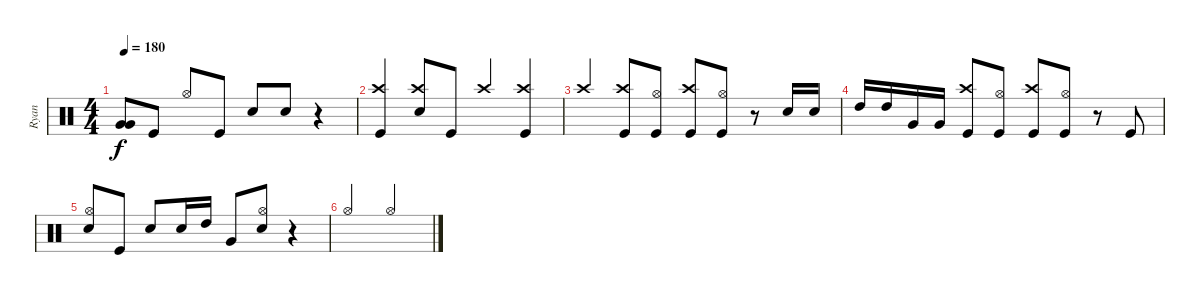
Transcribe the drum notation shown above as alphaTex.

\track ("Ryan" "Ryan") {instrument percussion}
\staff {score}
\articulation defaults
\ts (4 4)
\tempo 180
\clef neutral
\ks c
("Very Low Tom (hit)" "Very Low Tom (hit)").8{dy f} "Kick (hit)".8 "Hi-Hat (open)".8{beam Up} "Kick (hit)".8{beam Up} "Snare (hit) 2".8{beam Up} "Snare (hit) 2".8{beam Up} r.4 |
("Kick (hit)" "Crash high (hit)").4{beam Up} ("Snare (hit) 2" "Crash high (hit)").8{beam Up} "Kick (hit)".8{beam Up} "Crash high (hit)".4{beam Up} ("Kick (hit)" "Crash high (hit)").4{beam Up} |
"Crash high (hit)".4{beam Up} ("Kick (hit)" "Crash high (hit)").8{beam Up} ("Hi-Hat (open)" "Kick (hit)").8{beam Up} ("Kick (hit)" "Crash high (hit)").8{beam Up} ("Kick (hit)" "Hi-Hat (open)").8{beam Up} r.8 "Snare (hit) 2".16{beam Up} "Snare (hit) 2".16{beam Up} |
"High Tom (hit)".16{beam Up} "High Tom (hit)".16{beam Up} "Very Low Tom (hit)".16{beam Up} "Very Low Tom (hit)".16{beam Up} ("Kick (hit)" "Crash high (hit)").8{beam Up} ("Hi-Hat (open)" "Kick (hit)").8{beam Up} ("Kick (hit)" "Crash high (hit)").8{beam Up} ("Kick (hit)" "Hi-Hat (open)").8{beam Up} r.8 "Kick (hit)".8{beam Up} |
("Snare (hit) 2" "Hi-Hat (open)").8{beam Up} "Kick (hit)".8{beam Up} "Snare (hit) 2".8{beam Up} "Snare (hit) 2".16{beam Up} "High Tom (hit)".16{beam Up} "Very Low Tom (hit)".8{beam Up} ("Snare (hit) 2" "Hi-Hat (open)").8{beam Up} r.4 |
"Hi-Hat (open)".2{beam Up} "Hi-Hat (open)".2{beam Up}
